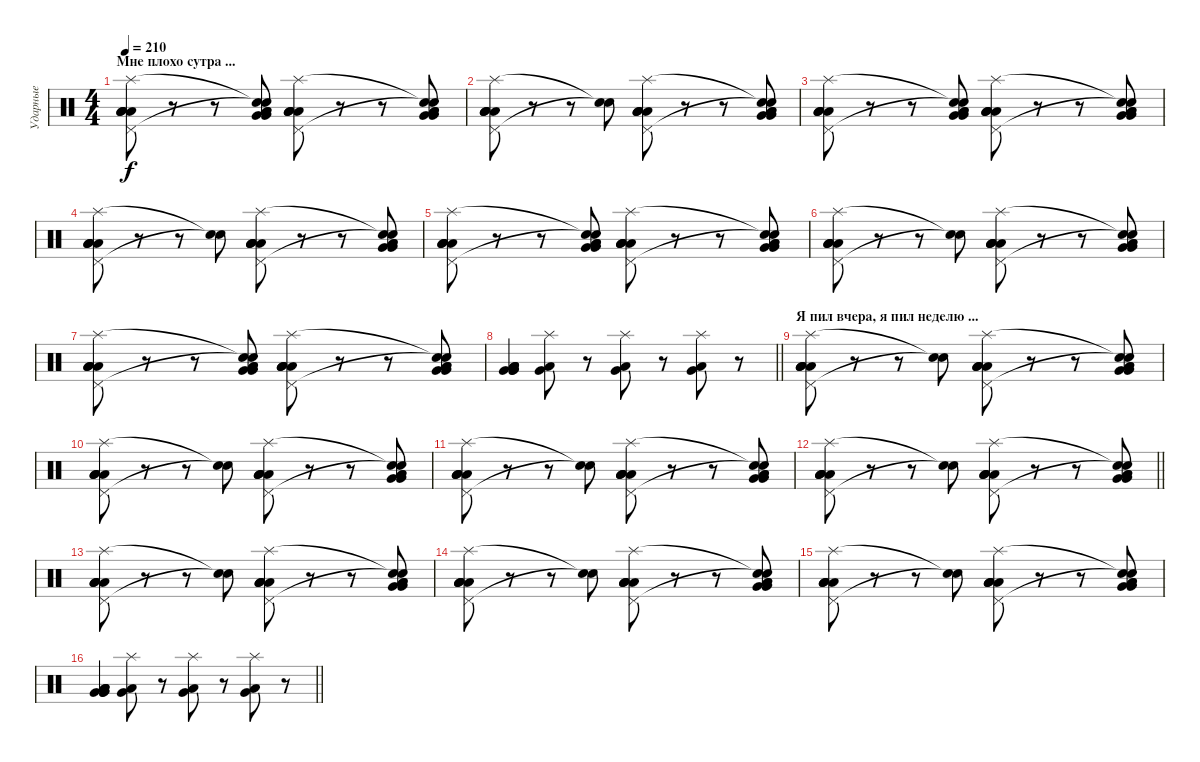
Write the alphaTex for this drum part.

\track ("Ударные" "Ударные") {instrument percussion}
\staff {score}
\articulation defaults
\ts (4 4)
\section ("" "Мне плохо сутра ...")
\tempo 210
\clef neutral
\ks c
("Splash (hit)" "Pedal Hi-Hat (hit)" "Low Tom (hit)" "Low Tom (hit)" "Low Tom (hit)" "Low Tom (hit)").8{dy f} r.8 r.8 ("Snare (hit)"{t} "Snare (hit)"{t} "Very Low Tom (hit)" "Very Low Tom (hit)" "Low Tom (hit)" "Low Tom (hit)").8 ("Splash (hit)" "Pedal Hi-Hat (hit)" "Low Tom (hit)" "Low Tom (hit)" "Low Tom (hit)" "Low Tom (hit)").8 r.8 r.8 ("Snare (hit)"{t} "Snare (hit)"{t} "Very Low Tom (hit)" "Very Low Tom (hit)" "Low Tom (hit)" "Low Tom (hit)").8 |
("Splash (hit)" "Pedal Hi-Hat (hit)" "Low Tom (hit)" "Low Tom (hit)" "Low Tom (hit)" "Low Tom (hit)").8 r.8 r.8 ("Snare (hit)"{t} "Snare (hit)"{t}).8 ("Splash (hit)" "Pedal Hi-Hat (hit)" "Low Tom (hit)" "Low Tom (hit)" "Low Tom (hit)" "Low Tom (hit)").8 r.8 r.8 ("Snare (hit)"{t} "Snare (hit)"{t} "Very Low Tom (hit)" "Very Low Tom (hit)" "Low Tom (hit)" "Low Tom (hit)").8 |
("Splash (hit)" "Pedal Hi-Hat (hit)" "Low Tom (hit)" "Low Tom (hit)" "Low Tom (hit)" "Low Tom (hit)").8 r.8 r.8 ("Snare (hit)"{t} "Snare (hit)"{t} "Very Low Tom (hit)" "Very Low Tom (hit)" "Low Tom (hit)" "Low Tom (hit)").8 ("Splash (hit)" "Pedal Hi-Hat (hit)" "Low Tom (hit)" "Low Tom (hit)" "Low Tom (hit)" "Low Tom (hit)").8 r.8 r.8 ("Snare (hit)"{t} "Snare (hit)"{t} "Very Low Tom (hit)" "Very Low Tom (hit)" "Low Tom (hit)" "Low Tom (hit)").8 |
("Splash (hit)" "Pedal Hi-Hat (hit)" "Low Tom (hit)" "Low Tom (hit)" "Low Tom (hit)" "Low Tom (hit)").8 r.8 r.8 ("Snare (hit)"{t} "Snare (hit)"{t}).8 ("Splash (hit)" "Pedal Hi-Hat (hit)" "Low Tom (hit)" "Low Tom (hit)" "Low Tom (hit)" "Low Tom (hit)").8 r.8 r.8 ("Snare (hit)"{t} "Snare (hit)"{t} "Very Low Tom (hit)" "Very Low Tom (hit)" "Low Tom (hit)" "Low Tom (hit)").8 |
("Splash (hit)" "Pedal Hi-Hat (hit)" "Low Tom (hit)" "Low Tom (hit)" "Low Tom (hit)" "Low Tom (hit)").8 r.8 r.8 ("Snare (hit)"{t} "Snare (hit)"{t} "Very Low Tom (hit)" "Very Low Tom (hit)" "Low Tom (hit)" "Low Tom (hit)").8 ("Splash (hit)" "Pedal Hi-Hat (hit)" "Low Tom (hit)" "Low Tom (hit)" "Low Tom (hit)" "Low Tom (hit)").8 r.8 r.8 ("Snare (hit)"{t} "Snare (hit)"{t} "Very Low Tom (hit)" "Very Low Tom (hit)" "Low Tom (hit)" "Low Tom (hit)").8 |
("Splash (hit)" "Pedal Hi-Hat (hit)" "Low Tom (hit)" "Low Tom (hit)" "Low Tom (hit)" "Low Tom (hit)").8 r.8 r.8 ("Snare (hit)"{t} "Snare (hit)"{t}).8 ("Splash (hit)" "Pedal Hi-Hat (hit)" "Low Tom (hit)" "Low Tom (hit)" "Low Tom (hit)" "Low Tom (hit)").8 r.8 r.8 ("Snare (hit)"{t} "Snare (hit)"{t} "Very Low Tom (hit)" "Very Low Tom (hit)" "Low Tom (hit)" "Low Tom (hit)").8 |
("Splash (hit)" "Pedal Hi-Hat (hit)" "Low Tom (hit)" "Low Tom (hit)" "Low Tom (hit)" "Low Tom (hit)").8 r.8 r.8 ("Snare (hit)"{t} "Snare (hit)"{t} "Very Low Tom (hit)" "Very Low Tom (hit)" "Low Tom (hit)" "Low Tom (hit)").8 ("Splash (hit)" "Pedal Hi-Hat (hit)" "Low Tom (hit)" "Low Tom (hit)" "Low Tom (hit)" "Low Tom (hit)").8 r.8 r.8 ("Snare (hit)"{t} "Snare (hit)"{t} "Very Low Tom (hit)" "Very Low Tom (hit)" "Low Tom (hit)" "Low Tom (hit)").8 |
\barLineRight lightlight
("Very Low Tom (hit)" "Very Low Tom (hit)" "Very Low Tom (hit)" "Low Tom (hit)" "Low Tom (hit)" "Low Tom (hit)").4 ("Very Low Tom (hit)" "Low Tom (hit)" "Splash (hit)").8 r.8 ("Very Low Tom (hit)" "Low Tom (hit)" "Splash (hit)").8 r.8 ("Very Low Tom (hit)" "Low Tom (hit)" "Splash (hit)").8 r.8 |
\section ("" "Я пил вчера, я пил неделю ...")
("Splash (hit)" "Pedal Hi-Hat (hit)" "Low Tom (hit)" "Low Tom (hit)" "Low Tom (hit)" "Low Tom (hit)").8 r.8 r.8 ("Snare (hit)"{t} "Snare (hit)"{t}).8 ("Splash (hit)" "Pedal Hi-Hat (hit)" "Low Tom (hit)" "Low Tom (hit)" "Low Tom (hit)" "Low Tom (hit)").8 r.8 r.8 ("Snare (hit)"{t} "Snare (hit)"{t} "Very Low Tom (hit)" "Very Low Tom (hit)" "Low Tom (hit)" "Low Tom (hit)").8 |
("Splash (hit)" "Pedal Hi-Hat (hit)" "Low Tom (hit)" "Low Tom (hit)" "Low Tom (hit)" "Low Tom (hit)").8 r.8 r.8 ("Snare (hit)"{t} "Snare (hit)"{t}).8 ("Splash (hit)" "Pedal Hi-Hat (hit)" "Low Tom (hit)" "Low Tom (hit)" "Low Tom (hit)" "Low Tom (hit)").8 r.8 r.8 ("Snare (hit)"{t} "Snare (hit)"{t} "Very Low Tom (hit)" "Very Low Tom (hit)" "Low Tom (hit)" "Low Tom (hit)").8 |
("Splash (hit)" "Pedal Hi-Hat (hit)" "Low Tom (hit)" "Low Tom (hit)" "Low Tom (hit)" "Low Tom (hit)").8 r.8 r.8 ("Snare (hit)"{t} "Snare (hit)"{t}).8 ("Splash (hit)" "Pedal Hi-Hat (hit)" "Low Tom (hit)" "Low Tom (hit)" "Low Tom (hit)" "Low Tom (hit)").8 r.8 r.8 ("Snare (hit)"{t} "Snare (hit)"{t} "Very Low Tom (hit)" "Very Low Tom (hit)" "Low Tom (hit)" "Low Tom (hit)").8 |
\barLineRight lightlight
("Splash (hit)" "Pedal Hi-Hat (hit)" "Low Tom (hit)" "Low Tom (hit)" "Low Tom (hit)" "Low Tom (hit)").8 r.8 r.8 ("Snare (hit)"{t} "Snare (hit)"{t}).8 ("Splash (hit)" "Pedal Hi-Hat (hit)" "Low Tom (hit)" "Low Tom (hit)" "Low Tom (hit)" "Low Tom (hit)").8 r.8 r.8 ("Snare (hit)"{t} "Snare (hit)"{t} "Very Low Tom (hit)" "Very Low Tom (hit)" "Low Tom (hit)" "Low Tom (hit)").8 |
("Splash (hit)" "Pedal Hi-Hat (hit)" "Low Tom (hit)" "Low Tom (hit)" "Low Tom (hit)" "Low Tom (hit)").8 r.8 r.8 ("Snare (hit)"{t} "Snare (hit)"{t}).8 ("Splash (hit)" "Pedal Hi-Hat (hit)" "Low Tom (hit)" "Low Tom (hit)" "Low Tom (hit)" "Low Tom (hit)").8 r.8 r.8 ("Snare (hit)"{t} "Snare (hit)"{t} "Very Low Tom (hit)" "Very Low Tom (hit)" "Low Tom (hit)" "Low Tom (hit)").8 |
("Splash (hit)" "Pedal Hi-Hat (hit)" "Low Tom (hit)" "Low Tom (hit)" "Low Tom (hit)" "Low Tom (hit)").8 r.8 r.8 ("Snare (hit)"{t} "Snare (hit)"{t}).8 ("Splash (hit)" "Pedal Hi-Hat (hit)" "Low Tom (hit)" "Low Tom (hit)" "Low Tom (hit)" "Low Tom (hit)").8 r.8 r.8 ("Snare (hit)"{t} "Snare (hit)"{t} "Very Low Tom (hit)" "Very Low Tom (hit)" "Low Tom (hit)" "Low Tom (hit)").8 |
("Splash (hit)" "Pedal Hi-Hat (hit)" "Low Tom (hit)" "Low Tom (hit)" "Low Tom (hit)" "Low Tom (hit)").8 r.8 r.8 ("Snare (hit)"{t} "Snare (hit)"{t}).8 ("Splash (hit)" "Pedal Hi-Hat (hit)" "Low Tom (hit)" "Low Tom (hit)" "Low Tom (hit)" "Low Tom (hit)").8 r.8 r.8 ("Snare (hit)"{t} "Snare (hit)"{t} "Very Low Tom (hit)" "Very Low Tom (hit)" "Low Tom (hit)" "Low Tom (hit)").8 |
\barLineRight lightlight
("Very Low Tom (hit)" "Very Low Tom (hit)" "Very Low Tom (hit)" "Low Tom (hit)" "Low Tom (hit)" "Low Tom (hit)").4 ("Very Low Tom (hit)" "Low Tom (hit)" "Splash (hit)").8 r.8 ("Very Low Tom (hit)" "Low Tom (hit)" "Splash (hit)").8 r.8 ("Very Low Tom (hit)" "Low Tom (hit)" "Splash (hit)").8 r.8
